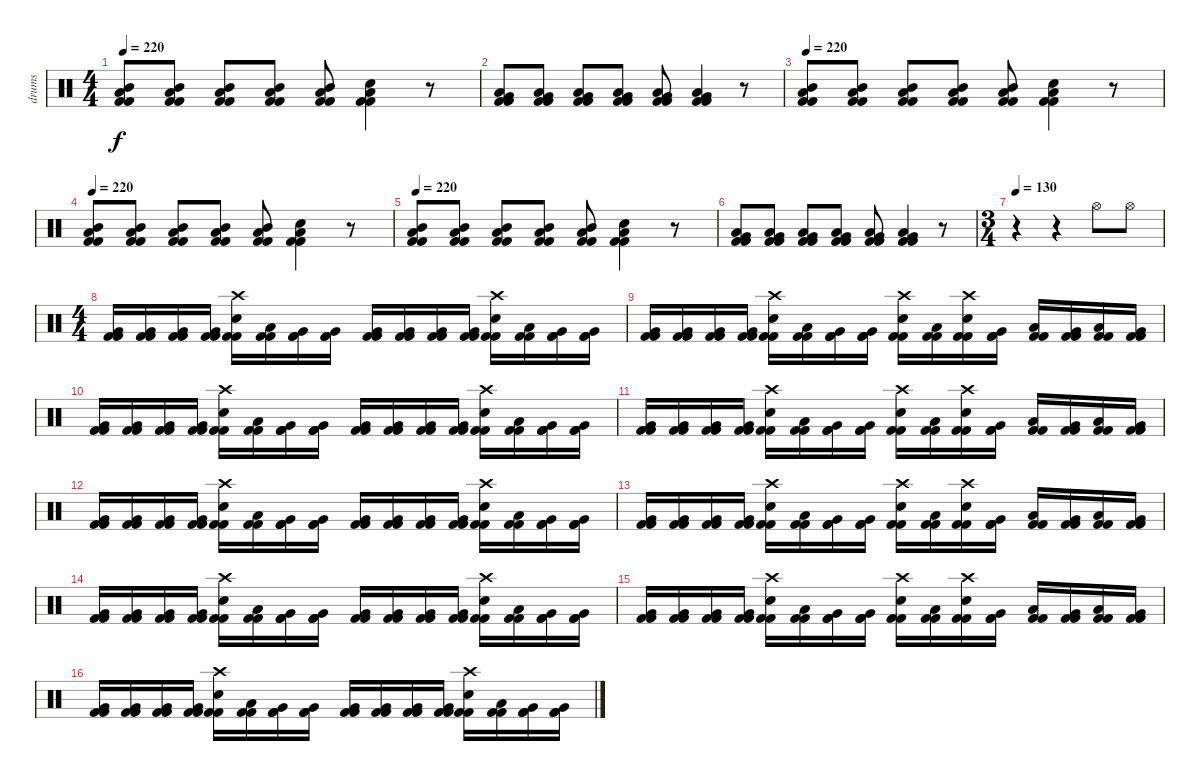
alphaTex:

\track ("drums" "drums") {instrument percussion}
\staff {score}
\articulation defaults
\ts (4 4)
\tempo 220
\clef neutral
\ks c
("Low Tom (hit)" "Mid Tom (hit)" "Kick (hit) 2" "Kick (hit) 2").8{dy f} ("Low Tom (hit)" "Mid Tom (hit)" "Kick (hit) 2" "Kick (hit) 2").8 ("Low Tom (hit)" "Mid Tom (hit)" "Kick (hit) 2" "Kick (hit) 2").8 ("Low Tom (hit)" "Mid Tom (hit)" "Kick (hit) 2" "Kick (hit) 2").8 ("Low Tom (hit)" "Mid Tom (hit)" "Kick (hit) 2" "Kick (hit) 2").8 ("Low Tom (hit)" "Electric Snare (hit)" "Kick (hit) 2" "Kick (hit) 2").4 r.8 |
("Low Tom (hit)" "Very Low Tom (hit)" "Kick (hit) 2" "Kick (hit) 2").8 ("Low Tom (hit)" "Very Low Tom (hit)" "Kick (hit) 2" "Kick (hit) 2").8 ("Low Tom (hit)" "Very Low Tom (hit)" "Kick (hit) 2" "Kick (hit) 2").8 ("Low Tom (hit)" "Very Low Tom (hit)" "Kick (hit) 2" "Kick (hit) 2").8 ("Low Tom (hit)" "Very Low Tom (hit)" "Kick (hit) 2" "Kick (hit) 2").8 ("Low Tom (hit)" "Very Low Tom (hit)" "Kick (hit) 2" "Kick (hit) 2").4 r.8 |
\tempo 220
("Low Tom (hit)" "Mid Tom (hit)" "Kick (hit) 2" "Kick (hit) 2").8 ("Low Tom (hit)" "Mid Tom (hit)" "Kick (hit) 2" "Kick (hit) 2").8 ("Low Tom (hit)" "Mid Tom (hit)" "Kick (hit) 2" "Kick (hit) 2").8 ("Low Tom (hit)" "Mid Tom (hit)" "Kick (hit) 2" "Kick (hit) 2").8 ("Low Tom (hit)" "Mid Tom (hit)" "Kick (hit) 2" "Kick (hit) 2").8 ("Low Tom (hit)" "Electric Snare (hit)" "Kick (hit) 2" "Kick (hit) 2").4 r.8 |
\tempo 220
("Low Tom (hit)" "Mid Tom (hit)" "Kick (hit) 2" "Kick (hit) 2").8 ("Low Tom (hit)" "Mid Tom (hit)" "Kick (hit) 2" "Kick (hit) 2").8 ("Low Tom (hit)" "Mid Tom (hit)" "Kick (hit) 2" "Kick (hit) 2").8 ("Low Tom (hit)" "Mid Tom (hit)" "Kick (hit) 2" "Kick (hit) 2").8 ("Low Tom (hit)" "Mid Tom (hit)" "Kick (hit) 2" "Kick (hit) 2").8 ("Low Tom (hit)" "Electric Snare (hit)" "Kick (hit) 2" "Kick (hit) 2").4 r.8 |
\tempo 220
("Low Tom (hit)" "Mid Tom (hit)" "Kick (hit) 2" "Kick (hit) 2").8 ("Low Tom (hit)" "Mid Tom (hit)" "Kick (hit) 2" "Kick (hit) 2").8 ("Low Tom (hit)" "Mid Tom (hit)" "Kick (hit) 2" "Kick (hit) 2").8 ("Low Tom (hit)" "Mid Tom (hit)" "Kick (hit) 2" "Kick (hit) 2").8 ("Low Tom (hit)" "Mid Tom (hit)" "Kick (hit) 2" "Kick (hit) 2").8 ("Low Tom (hit)" "Electric Snare (hit)" "Kick (hit) 2" "Kick (hit) 2").4 r.8 |
("Low Tom (hit)" "Very Low Tom (hit)" "Kick (hit) 2" "Kick (hit) 2").8 ("Low Tom (hit)" "Very Low Tom (hit)" "Kick (hit) 2" "Kick (hit) 2").8 ("Low Tom (hit)" "Very Low Tom (hit)" "Kick (hit) 2" "Kick (hit) 2").8 ("Low Tom (hit)" "Very Low Tom (hit)" "Kick (hit) 2" "Kick (hit) 2").8 ("Low Tom (hit)" "Very Low Tom (hit)" "Kick (hit) 2" "Kick (hit) 2").8 ("Low Tom (hit)" "Very Low Tom (hit)" "Kick (hit) 2" "Kick (hit) 2").4 r.8 |
\ts (3 4)
\tempo 130
r.4 r.4 "Hi-Hat (open)".8 "Hi-Hat (open)".8 |
\ts (4 4)
("Very Low Tom (hit)" "Kick (hit) 2" "Kick (hit) 2").16 ("Very Low Tom (hit)" "Kick (hit) 2" "Kick (hit) 2").16 ("Very Low Tom (hit)" "Kick (hit) 2" "Kick (hit) 2").16 ("Very Low Tom (hit)" "Kick (hit) 2" "Kick (hit) 2").16 ("Crash high (hit)" "Electric Snare (hit)" "Kick (hit) 2" "Kick (hit) 2").16 ("Low Tom (hit)" "Kick (hit) 2" "Kick (hit) 2").16 ("Very Low Tom (hit)" "Kick (hit) 2" "Kick (hit) 2").16 ("Very Low Tom (hit)" "Kick (hit) 2" "Kick (hit) 2").16 ("Very Low Tom (hit)" "Kick (hit) 2" "Kick (hit) 2").16 ("Very Low Tom (hit)" "Kick (hit) 2" "Kick (hit) 2").16 ("Very Low Tom (hit)" "Kick (hit) 2" "Kick (hit) 2").16 ("Very Low Tom (hit)" "Kick (hit) 2" "Kick (hit) 2").16 ("Crash high (hit)" "Electric Snare (hit)" "Kick (hit) 2" "Kick (hit) 2").16 ("Low Tom (hit)" "Kick (hit) 2" "Kick (hit) 2").16 ("Very Low Tom (hit)" "Kick (hit) 2" "Kick (hit) 2").16 ("Very Low Tom (hit)" "Kick (hit) 2" "Kick (hit) 2").16 |
("Very Low Tom (hit)" "Kick (hit) 2" "Kick (hit) 2").16 ("Very Low Tom (hit)" "Kick (hit) 2" "Kick (hit) 2").16 ("Very Low Tom (hit)" "Kick (hit) 2" "Kick (hit) 2").16 ("Very Low Tom (hit)" "Kick (hit) 2" "Kick (hit) 2").16 ("Crash high (hit)" "Electric Snare (hit)" "Kick (hit) 2" "Kick (hit) 2").16 ("Low Tom (hit)" "Kick (hit) 2" "Kick (hit) 2").16 ("Very Low Tom (hit)" "Kick (hit) 2" "Kick (hit) 2").16 ("Very Low Tom (hit)" "Kick (hit) 2" "Kick (hit) 2").16 ("Crash high (hit)" "Electric Snare (hit)" "Kick (hit) 2" "Kick (hit) 2").16 ("Low Tom (hit)" "Kick (hit) 2" "Kick (hit) 2").16 ("Crash high (hit)" "Electric Snare (hit)" "Kick (hit) 2" "Kick (hit) 2").16 ("Very Low Tom (hit)" "Kick (hit) 2" "Kick (hit) 2").16 ("Low Tom (hit)" "Kick (hit) 2" "Kick (hit) 2").16 ("Very Low Tom (hit)" "Kick (hit) 2" "Kick (hit) 2").16 ("Low Tom (hit)" "Kick (hit) 2" "Kick (hit) 2").16 ("Very Low Tom (hit)" "Kick (hit) 2" "Kick (hit) 2").16 |
("Very Low Tom (hit)" "Kick (hit) 2" "Kick (hit) 2").16 ("Very Low Tom (hit)" "Kick (hit) 2" "Kick (hit) 2").16 ("Very Low Tom (hit)" "Kick (hit) 2" "Kick (hit) 2").16 ("Very Low Tom (hit)" "Kick (hit) 2" "Kick (hit) 2").16 ("Crash high (hit)" "Electric Snare (hit)" "Kick (hit) 2" "Kick (hit) 2").16 ("Low Tom (hit)" "Kick (hit) 2" "Kick (hit) 2").16 ("Very Low Tom (hit)" "Kick (hit) 2" "Kick (hit) 2").16 ("Very Low Tom (hit)" "Kick (hit) 2" "Kick (hit) 2").16 ("Very Low Tom (hit)" "Kick (hit) 2" "Kick (hit) 2").16 ("Very Low Tom (hit)" "Kick (hit) 2" "Kick (hit) 2").16 ("Very Low Tom (hit)" "Kick (hit) 2" "Kick (hit) 2").16 ("Very Low Tom (hit)" "Kick (hit) 2" "Kick (hit) 2").16 ("Crash high (hit)" "Electric Snare (hit)" "Kick (hit) 2" "Kick (hit) 2").16 ("Low Tom (hit)" "Kick (hit) 2" "Kick (hit) 2").16 ("Very Low Tom (hit)" "Kick (hit) 2" "Kick (hit) 2").16 ("Very Low Tom (hit)" "Kick (hit) 2" "Kick (hit) 2").16 |
("Very Low Tom (hit)" "Kick (hit) 2" "Kick (hit) 2").16 ("Very Low Tom (hit)" "Kick (hit) 2" "Kick (hit) 2").16 ("Very Low Tom (hit)" "Kick (hit) 2" "Kick (hit) 2").16 ("Very Low Tom (hit)" "Kick (hit) 2" "Kick (hit) 2").16 ("Crash high (hit)" "Electric Snare (hit)" "Kick (hit) 2" "Kick (hit) 2").16 ("Low Tom (hit)" "Kick (hit) 2" "Kick (hit) 2").16 ("Very Low Tom (hit)" "Kick (hit) 2" "Kick (hit) 2").16 ("Very Low Tom (hit)" "Kick (hit) 2" "Kick (hit) 2").16 ("Crash high (hit)" "Electric Snare (hit)" "Kick (hit) 2" "Kick (hit) 2").16 ("Low Tom (hit)" "Kick (hit) 2" "Kick (hit) 2").16 ("Crash high (hit)" "Electric Snare (hit)" "Kick (hit) 2" "Kick (hit) 2").16 ("Very Low Tom (hit)" "Kick (hit) 2" "Kick (hit) 2").16 ("Low Tom (hit)" "Kick (hit) 2" "Kick (hit) 2").16 ("Very Low Tom (hit)" "Kick (hit) 2" "Kick (hit) 2").16 ("Low Tom (hit)" "Kick (hit) 2" "Kick (hit) 2").16 ("Very Low Tom (hit)" "Kick (hit) 2" "Kick (hit) 2").16 |
("Very Low Tom (hit)" "Kick (hit) 2" "Kick (hit) 2").16 ("Very Low Tom (hit)" "Kick (hit) 2" "Kick (hit) 2").16 ("Very Low Tom (hit)" "Kick (hit) 2" "Kick (hit) 2").16 ("Very Low Tom (hit)" "Kick (hit) 2" "Kick (hit) 2").16 ("Crash high (hit)" "Electric Snare (hit)" "Kick (hit) 2" "Kick (hit) 2").16 ("Low Tom (hit)" "Kick (hit) 2" "Kick (hit) 2").16 ("Very Low Tom (hit)" "Kick (hit) 2" "Kick (hit) 2").16 ("Very Low Tom (hit)" "Kick (hit) 2" "Kick (hit) 2").16 ("Very Low Tom (hit)" "Kick (hit) 2" "Kick (hit) 2").16 ("Very Low Tom (hit)" "Kick (hit) 2" "Kick (hit) 2").16 ("Very Low Tom (hit)" "Kick (hit) 2" "Kick (hit) 2").16 ("Very Low Tom (hit)" "Kick (hit) 2" "Kick (hit) 2").16 ("Crash high (hit)" "Electric Snare (hit)" "Kick (hit) 2" "Kick (hit) 2").16 ("Low Tom (hit)" "Kick (hit) 2" "Kick (hit) 2").16 ("Very Low Tom (hit)" "Kick (hit) 2" "Kick (hit) 2").16 ("Very Low Tom (hit)" "Kick (hit) 2" "Kick (hit) 2").16 |
("Very Low Tom (hit)" "Kick (hit) 2" "Kick (hit) 2").16 ("Very Low Tom (hit)" "Kick (hit) 2" "Kick (hit) 2").16 ("Very Low Tom (hit)" "Kick (hit) 2" "Kick (hit) 2").16 ("Very Low Tom (hit)" "Kick (hit) 2" "Kick (hit) 2").16 ("Crash high (hit)" "Electric Snare (hit)" "Kick (hit) 2" "Kick (hit) 2").16 ("Low Tom (hit)" "Kick (hit) 2" "Kick (hit) 2").16 ("Very Low Tom (hit)" "Kick (hit) 2" "Kick (hit) 2").16 ("Very Low Tom (hit)" "Kick (hit) 2" "Kick (hit) 2").16 ("Crash high (hit)" "Electric Snare (hit)" "Kick (hit) 2" "Kick (hit) 2").16 ("Low Tom (hit)" "Kick (hit) 2" "Kick (hit) 2").16 ("Crash high (hit)" "Electric Snare (hit)" "Kick (hit) 2" "Kick (hit) 2").16 ("Very Low Tom (hit)" "Kick (hit) 2" "Kick (hit) 2").16 ("Low Tom (hit)" "Kick (hit) 2" "Kick (hit) 2").16 ("Very Low Tom (hit)" "Kick (hit) 2" "Kick (hit) 2").16 ("Low Tom (hit)" "Kick (hit) 2" "Kick (hit) 2").16 ("Very Low Tom (hit)" "Kick (hit) 2" "Kick (hit) 2").16 |
("Very Low Tom (hit)" "Kick (hit) 2" "Kick (hit) 2").16 ("Very Low Tom (hit)" "Kick (hit) 2" "Kick (hit) 2").16 ("Very Low Tom (hit)" "Kick (hit) 2" "Kick (hit) 2").16 ("Very Low Tom (hit)" "Kick (hit) 2" "Kick (hit) 2").16 ("Crash high (hit)" "Electric Snare (hit)" "Kick (hit) 2" "Kick (hit) 2").16 ("Low Tom (hit)" "Kick (hit) 2" "Kick (hit) 2").16 ("Very Low Tom (hit)" "Kick (hit) 2" "Kick (hit) 2").16 ("Very Low Tom (hit)" "Kick (hit) 2" "Kick (hit) 2").16 ("Very Low Tom (hit)" "Kick (hit) 2" "Kick (hit) 2").16 ("Very Low Tom (hit)" "Kick (hit) 2" "Kick (hit) 2").16 ("Very Low Tom (hit)" "Kick (hit) 2" "Kick (hit) 2").16 ("Very Low Tom (hit)" "Kick (hit) 2" "Kick (hit) 2").16 ("Crash high (hit)" "Electric Snare (hit)" "Kick (hit) 2" "Kick (hit) 2").16 ("Low Tom (hit)" "Kick (hit) 2" "Kick (hit) 2").16 ("Very Low Tom (hit)" "Kick (hit) 2" "Kick (hit) 2").16 ("Very Low Tom (hit)" "Kick (hit) 2" "Kick (hit) 2").16 |
("Very Low Tom (hit)" "Kick (hit) 2" "Kick (hit) 2").16 ("Very Low Tom (hit)" "Kick (hit) 2" "Kick (hit) 2").16 ("Very Low Tom (hit)" "Kick (hit) 2" "Kick (hit) 2").16 ("Very Low Tom (hit)" "Kick (hit) 2" "Kick (hit) 2").16 ("Crash high (hit)" "Electric Snare (hit)" "Kick (hit) 2" "Kick (hit) 2").16 ("Low Tom (hit)" "Kick (hit) 2" "Kick (hit) 2").16 ("Very Low Tom (hit)" "Kick (hit) 2" "Kick (hit) 2").16 ("Very Low Tom (hit)" "Kick (hit) 2" "Kick (hit) 2").16 ("Crash high (hit)" "Electric Snare (hit)" "Kick (hit) 2" "Kick (hit) 2").16 ("Low Tom (hit)" "Kick (hit) 2" "Kick (hit) 2").16 ("Crash high (hit)" "Electric Snare (hit)" "Kick (hit) 2" "Kick (hit) 2").16 ("Very Low Tom (hit)" "Kick (hit) 2" "Kick (hit) 2").16 ("Low Tom (hit)" "Kick (hit) 2" "Kick (hit) 2").16 ("Very Low Tom (hit)" "Kick (hit) 2" "Kick (hit) 2").16 ("Low Tom (hit)" "Kick (hit) 2" "Kick (hit) 2").16 ("Very Low Tom (hit)" "Kick (hit) 2" "Kick (hit) 2").16 |
("Very Low Tom (hit)" "Kick (hit) 2" "Kick (hit) 2").16 ("Very Low Tom (hit)" "Kick (hit) 2" "Kick (hit) 2").16 ("Very Low Tom (hit)" "Kick (hit) 2" "Kick (hit) 2").16 ("Very Low Tom (hit)" "Kick (hit) 2" "Kick (hit) 2").16 ("Crash high (hit)" "Electric Snare (hit)" "Kick (hit) 2" "Kick (hit) 2").16 ("Low Tom (hit)" "Kick (hit) 2" "Kick (hit) 2").16 ("Very Low Tom (hit)" "Kick (hit) 2" "Kick (hit) 2").16 ("Very Low Tom (hit)" "Kick (hit) 2" "Kick (hit) 2").16 ("Very Low Tom (hit)" "Kick (hit) 2" "Kick (hit) 2").16 ("Very Low Tom (hit)" "Kick (hit) 2" "Kick (hit) 2").16 ("Very Low Tom (hit)" "Kick (hit) 2" "Kick (hit) 2").16 ("Very Low Tom (hit)" "Kick (hit) 2" "Kick (hit) 2").16 ("Crash high (hit)" "Electric Snare (hit)" "Kick (hit) 2" "Kick (hit) 2").16 ("Low Tom (hit)" "Kick (hit) 2" "Kick (hit) 2").16 ("Very Low Tom (hit)" "Kick (hit) 2" "Kick (hit) 2").16 ("Very Low Tom (hit)" "Kick (hit) 2" "Kick (hit) 2").16
